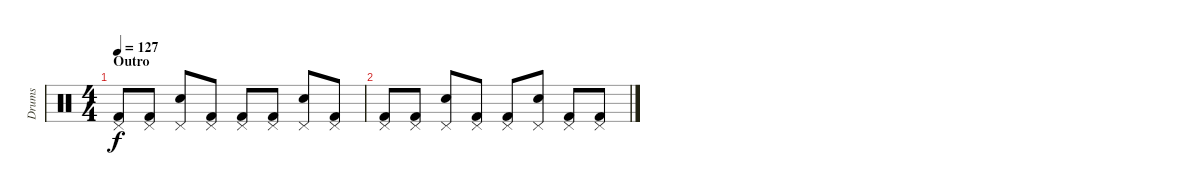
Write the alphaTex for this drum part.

\track ("Drums" "Drums") {instrument percussion}
\staff {score}
\articulation defaults
\ts (4 4)
\section ("" "Outro")
\tempo 127
\clef neutral
\ks c
("Pedal Hi-Hat (hit)" "Kick (hit) 2").8{dy f} ("Pedal Hi-Hat (hit)" "Kick (hit) 2").8 ("Pedal Hi-Hat (hit)" "Snare (hit) 2").8 ("Pedal Hi-Hat (hit)" "Kick (hit) 2").8 ("Pedal Hi-Hat (hit)" "Kick (hit) 2").8 ("Pedal Hi-Hat (hit)" "Kick (hit) 2").8 ("Pedal Hi-Hat (hit)" "Snare (hit) 2").8 ("Pedal Hi-Hat (hit)" "Kick (hit) 2").8 |
("Pedal Hi-Hat (hit)" "Kick (hit) 2").8 ("Pedal Hi-Hat (hit)" "Kick (hit) 2").8 ("Pedal Hi-Hat (hit)" "Snare (hit) 2").8 ("Pedal Hi-Hat (hit)" "Kick (hit) 2").8 ("Pedal Hi-Hat (hit)" "Kick (hit) 2").8 ("Pedal Hi-Hat (hit)" "Snare (hit) 2").8 ("Pedal Hi-Hat (hit)" "Kick (hit) 2").8 ("Pedal Hi-Hat (hit)" "Kick (hit) 2").8
